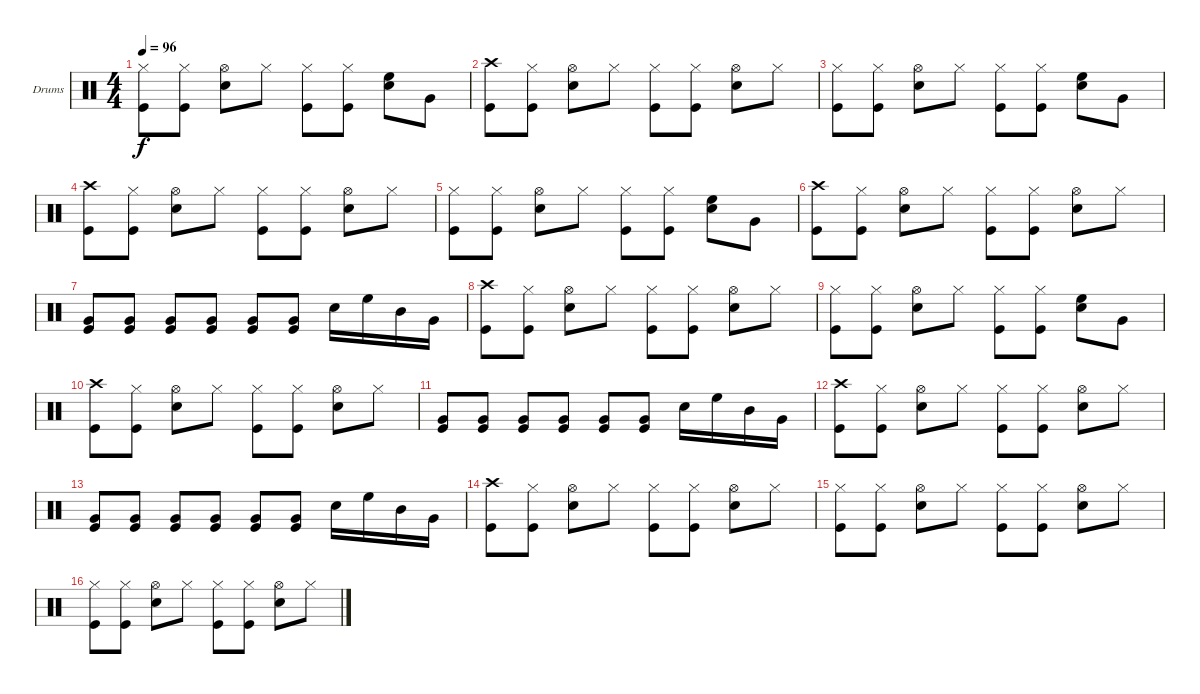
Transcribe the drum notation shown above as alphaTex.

\bracketExtendMode groupsimilarinstruments
\firstSystemTrackNameOrientation horizontal
\otherSystemsTrackNameOrientation horizontal
\track ("Drumkit" "Drums") {instrument percussion}
\staff {score}
\articulation defaults
\ts (4 4)
\tempo 96
\clef neutral
\ks c
("Hi-Hat (closed)" "Kick (hit)").8{dy f} ("Hi-Hat (closed)" "Kick (hit)").8 ("Hi-Hat (open)" "Snare (hit) 2").8 "Hi-Hat (closed)".8 ("Hi-Hat (closed)" "Kick (hit)").8 ("Hi-Hat (closed)" "Kick (hit)").8 ("Snare (hit) 2" "High Floor Tom (hit)").8 "Very Low Tom (hit)".8 |
("Crash high (hit)" "Kick (hit)").8 ("Hi-Hat (closed)" "Kick (hit)").8 ("Hi-Hat (open)" "Snare (hit) 2").8 "Hi-Hat (closed)".8 ("Hi-Hat (closed)" "Kick (hit)").8 ("Hi-Hat (closed)" "Kick (hit)").8 ("Hi-Hat (open)" "Snare (hit) 2").8 "Hi-Hat (closed)".8 |
("Hi-Hat (closed)" "Kick (hit)").8 ("Hi-Hat (closed)" "Kick (hit)").8 ("Hi-Hat (open)" "Snare (hit) 2").8 "Hi-Hat (closed)".8 ("Hi-Hat (closed)" "Kick (hit)").8 ("Hi-Hat (closed)" "Kick (hit)").8 ("Snare (hit) 2" "High Floor Tom (hit)").8 "Very Low Tom (hit)".8 |
("Crash high (hit)" "Kick (hit)").8 ("Hi-Hat (closed)" "Kick (hit)").8 ("Hi-Hat (open)" "Snare (hit) 2").8 "Hi-Hat (closed)".8 ("Hi-Hat (closed)" "Kick (hit)").8 ("Hi-Hat (closed)" "Kick (hit)").8 ("Hi-Hat (open)" "Snare (hit) 2").8 "Hi-Hat (closed)".8 |
("Hi-Hat (closed)" "Kick (hit)").8 ("Hi-Hat (closed)" "Kick (hit)").8 ("Hi-Hat (open)" "Snare (hit) 2").8 "Hi-Hat (closed)".8 ("Hi-Hat (closed)" "Kick (hit)").8 ("Hi-Hat (closed)" "Kick (hit)").8 ("Snare (hit) 2" "High Floor Tom (hit)").8 "Very Low Tom (hit)".8 |
("Crash high (hit)" "Kick (hit)").8 ("Hi-Hat (closed)" "Kick (hit)").8 ("Hi-Hat (open)" "Snare (hit) 2").8 "Hi-Hat (closed)".8 ("Hi-Hat (closed)" "Kick (hit)").8 ("Hi-Hat (closed)" "Kick (hit)").8 ("Hi-Hat (open)" "Snare (hit) 2").8 "Hi-Hat (closed)".8 |
("Kick (hit)" "Very Low Tom (hit)").8 ("Kick (hit)" "Very Low Tom (hit)").8 ("Kick (hit)" "Very Low Tom (hit)").8 ("Kick (hit)" "Very Low Tom (hit)").8 ("Kick (hit)" "Very Low Tom (hit)").8 ("Kick (hit)" "Very Low Tom (hit)").8 "Snare (hit) 2".16 "High Floor Tom (hit)".16 "Mid Tom (hit)".16 "Very Low Tom (hit)".16 |
("Crash high (hit)" "Kick (hit)").8 ("Hi-Hat (closed)" "Kick (hit)").8 ("Hi-Hat (open)" "Snare (hit) 2").8 "Hi-Hat (closed)".8 ("Hi-Hat (closed)" "Kick (hit)").8 ("Hi-Hat (closed)" "Kick (hit)").8 ("Hi-Hat (open)" "Snare (hit) 2").8 "Hi-Hat (closed)".8 |
("Hi-Hat (closed)" "Kick (hit)").8 ("Hi-Hat (closed)" "Kick (hit)").8 ("Hi-Hat (open)" "Snare (hit) 2").8 "Hi-Hat (closed)".8 ("Hi-Hat (closed)" "Kick (hit)").8 ("Hi-Hat (closed)" "Kick (hit)").8 ("Snare (hit) 2" "High Floor Tom (hit)").8 "Very Low Tom (hit)".8 |
("Crash high (hit)" "Kick (hit)").8 ("Hi-Hat (closed)" "Kick (hit)").8 ("Hi-Hat (open)" "Snare (hit) 2").8 "Hi-Hat (closed)".8 ("Hi-Hat (closed)" "Kick (hit)").8 ("Hi-Hat (closed)" "Kick (hit)").8 ("Hi-Hat (open)" "Snare (hit) 2").8 "Hi-Hat (closed)".8 |
("Kick (hit)" "Very Low Tom (hit)").8 ("Kick (hit)" "Very Low Tom (hit)").8 ("Kick (hit)" "Very Low Tom (hit)").8 ("Kick (hit)" "Very Low Tom (hit)").8 ("Kick (hit)" "Very Low Tom (hit)").8 ("Kick (hit)" "Very Low Tom (hit)").8 "Snare (hit) 2".16 "High Floor Tom (hit)".16 "Mid Tom (hit)".16 "Very Low Tom (hit)".16 |
("Crash high (hit)" "Kick (hit)").8 ("Hi-Hat (closed)" "Kick (hit)").8 ("Hi-Hat (open)" "Snare (hit) 2").8 "Hi-Hat (closed)".8 ("Hi-Hat (closed)" "Kick (hit)").8 ("Hi-Hat (closed)" "Kick (hit)").8 ("Hi-Hat (open)" "Snare (hit) 2").8 "Hi-Hat (closed)".8 |
("Kick (hit)" "Very Low Tom (hit)").8 ("Kick (hit)" "Very Low Tom (hit)").8 ("Kick (hit)" "Very Low Tom (hit)").8 ("Kick (hit)" "Very Low Tom (hit)").8 ("Kick (hit)" "Very Low Tom (hit)").8 ("Kick (hit)" "Very Low Tom (hit)").8 "Snare (hit) 2".16 "High Floor Tom (hit)".16 "Mid Tom (hit)".16 "Very Low Tom (hit)".16 |
("Crash high (hit)" "Kick (hit)").8 ("Hi-Hat (closed)" "Kick (hit)").8 ("Hi-Hat (open)" "Snare (hit) 2").8 "Hi-Hat (closed)".8 ("Hi-Hat (closed)" "Kick (hit)").8 ("Hi-Hat (closed)" "Kick (hit)").8 ("Hi-Hat (open)" "Snare (hit) 2").8 "Hi-Hat (closed)".8 |
("Hi-Hat (closed)" "Kick (hit)").8 ("Hi-Hat (closed)" "Kick (hit)").8 ("Hi-Hat (open)" "Snare (hit) 2").8 "Hi-Hat (closed)".8 ("Hi-Hat (closed)" "Kick (hit)").8 ("Hi-Hat (closed)" "Kick (hit)").8 ("Hi-Hat (open)" "Snare (hit) 2").8 "Hi-Hat (closed)".8 |
("Hi-Hat (closed)" "Kick (hit)").8 ("Hi-Hat (closed)" "Kick (hit)").8 ("Hi-Hat (open)" "Snare (hit) 2").8 "Hi-Hat (closed)".8 ("Hi-Hat (closed)" "Kick (hit)").8 ("Hi-Hat (closed)" "Kick (hit)").8 ("Hi-Hat (open)" "Snare (hit) 2").8 "Hi-Hat (closed)".8
